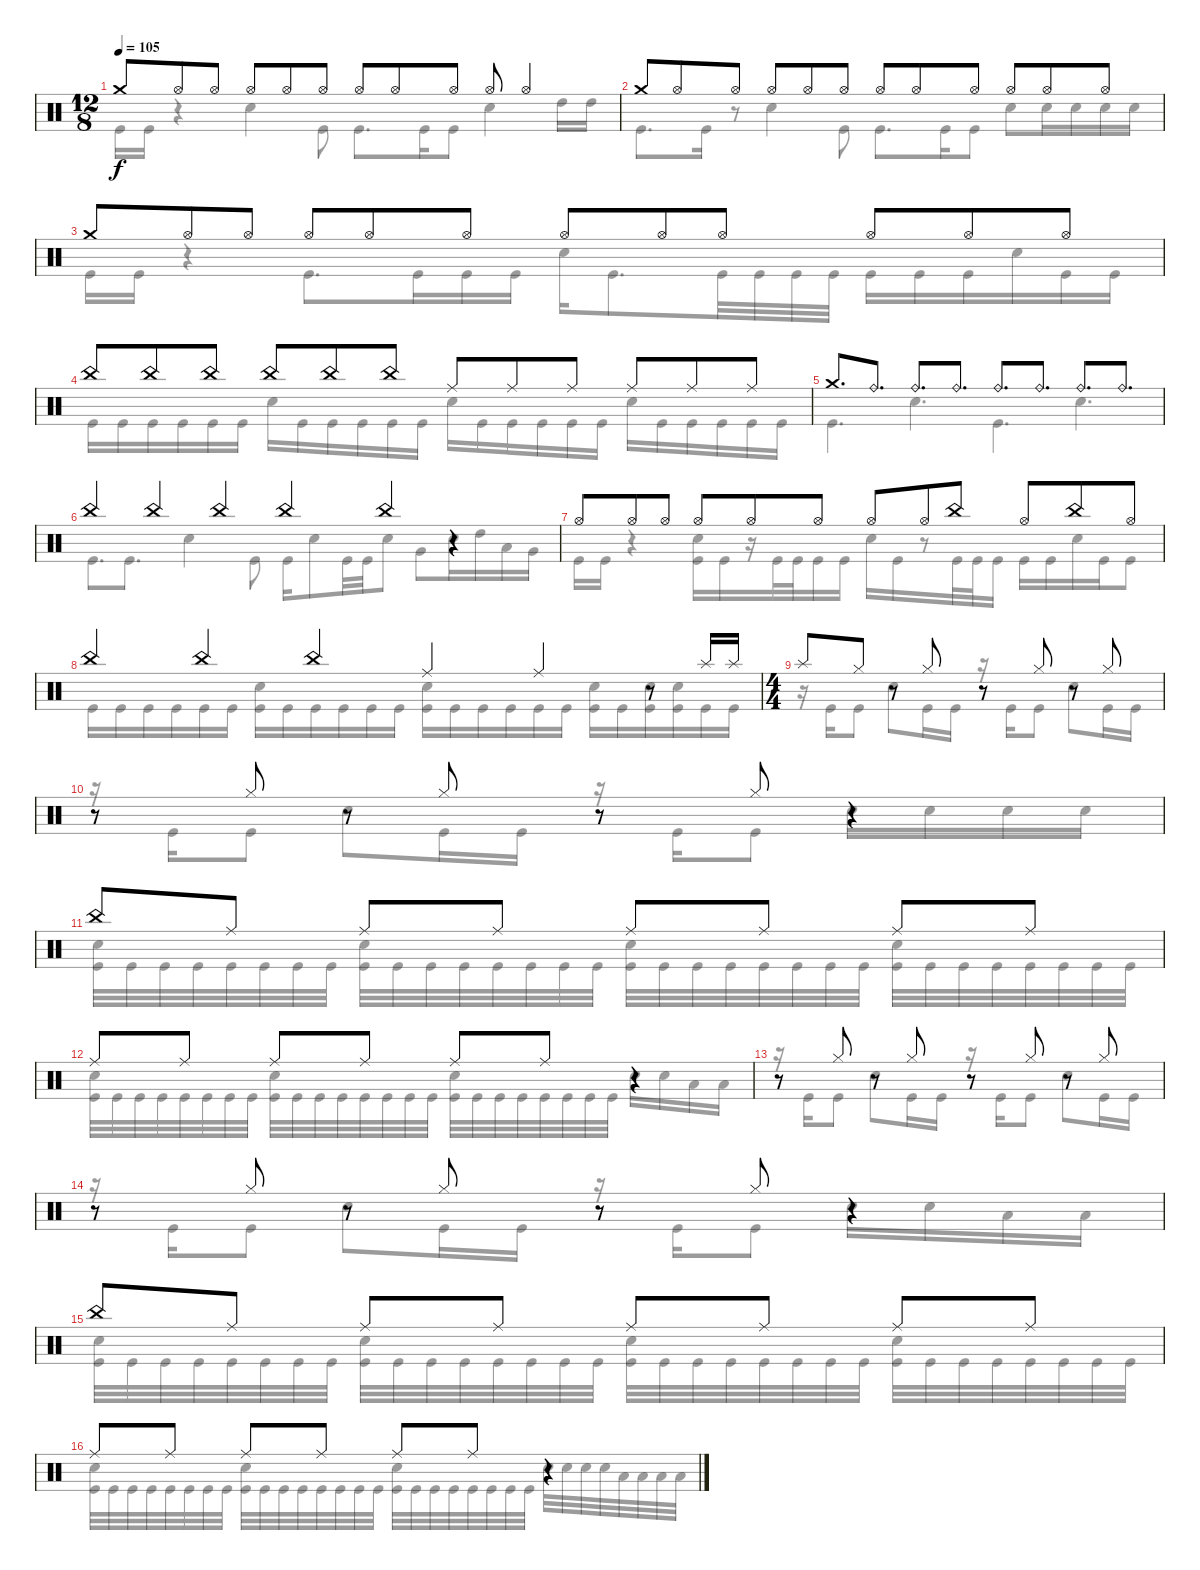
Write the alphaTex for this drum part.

\track "" {instrument percussion}
\staff {score}
\articulation defaults
\voice
\ts (12 8)
\tempo 105
\clef neutral
\ks c "Crash medium (hit)".8{dy f} "Hi-Hat (open)".8 "Hi-Hat (open)".8 "Hi-Hat (open)".8 "Hi-Hat (open)".8 "Hi-Hat (open)".8 "Hi-Hat (open)".8 "Hi-Hat (open)".8 "Hi-Hat (open)".8 "Hi-Hat (open)".8 "Hi-Hat (open)".4
|
"Crash medium (hit)".8 "Hi-Hat (open)".8 "Hi-Hat (open)".8 "Hi-Hat (open)".8 "Hi-Hat (open)".8 "Hi-Hat (open)".8 "Hi-Hat (open)".8 "Hi-Hat (open)".8 "Hi-Hat (open)".8 "Hi-Hat (open)".8 "Hi-Hat (open)".8 "Hi-Hat (open)".8 |
"Crash medium (hit)".8 "Hi-Hat (open)".8 "Hi-Hat (open)".8 "Hi-Hat (open)".8 "Hi-Hat (open)".8 "Hi-Hat (open)".8 "Hi-Hat (open)".8 "Hi-Hat (open)".8 "Hi-Hat (open)".8 "Hi-Hat (open)".8 "Hi-Hat (open)".8 "Hi-Hat (open)".8 |
"China (hit)".8 "China (hit)".8 "China (hit)".8 "China (hit)".8 "China (hit)".8 "China (hit)".8 "Ride (middle)".8 "Ride (middle)".8 "Ride (middle)".8 "Ride (middle)".8 "Ride (middle)".8 "Ride (middle)".8 |
"Crash medium (hit)".8{d} "Ride (bell)".8{d} "Ride (bell)".8{d} "Ride (bell)".8{d} "Ride (bell)".8{d} "Ride (bell)".8{d} "Ride (bell)".8{d} "Ride (bell)".8{d} |
"China (hit)".4 "China (hit)".4 "China (hit)".4 "China (hit)".4 "China (hit)".4 r.4 |
"Hi-Hat (open)".8 "Hi-Hat (open)".8 "Hi-Hat (open)".8 "Hi-Hat (open)".8 "Hi-Hat (open)".8 "Hi-Hat (open)".8 "Hi-Hat (open)".8 "Hi-Hat (open)".8 "China (hit)".8 "Hi-Hat (open)".8 "China (hit)".8 "Hi-Hat (open)".8 |
"China (hit)".4 "China (hit)".4 "China (hit)".4 "Ride (middle)".4 "Ride (middle)".4 r.8 "Splash (hit)".16 "Splash (hit)".16 |
\ts (4 4)
"Splash (hit)".8 "Hi-Hat (closed)".8 r.8 "Hi-Hat (closed)".8 r.8 "Hi-Hat (closed)".8 r.8 "Hi-Hat (closed)".8 |
r.8 "Hi-Hat (closed)".8 r.8 "Hi-Hat (closed)".8 r.8 "Hi-Hat (closed)".8 r.4 |
"China (hit)".8 "Ride (middle)".8{beam split} "Ride (middle)".8{beam merge} "Ride (middle)".8{beam split} "Ride (middle)".8 "Ride (middle)".8 "Ride (middle)".8 "Ride (middle)".8 |
"Ride (middle)".8 "Ride (middle)".8{beam split} "Ride (middle)".8{beam merge} "Ride (middle)".8{beam split} "Ride (middle)".8 "Ride (middle)".8 r.4 |
r.8 "Hi-Hat (closed)".8 r.8 "Hi-Hat (closed)".8 r.8 "Hi-Hat (closed)".8 r.8 "Hi-Hat (closed)".8 |
r.8 "Hi-Hat (closed)".8 r.8 "Hi-Hat (closed)".8 r.8 "Hi-Hat (closed)".8 r.4 |
"China (hit)".8 "Ride (middle)".8{beam split} "Ride (middle)".8{beam merge} "Ride (middle)".8{beam split} "Ride (middle)".8 "Ride (middle)".8 "Ride (middle)".8 "Ride (middle)".8 |
"Ride (middle)".8 "Ride (middle)".8{beam split} "Ride (middle)".8{beam merge} "Ride (middle)".8{beam split} "Ride (middle)".8 "Ride (middle)".8 r.4
\voice
\clef neutral
\ottava regular
\simile none
\ks c "Kick (hit)".16{dy f} "Kick (hit)".16
r.4 "Snare (hit) 2".4 "Kick (hit)".8 "Kick (hit)".8{d} "Kick (hit)".16 "Kick (hit)".8 "Snare (hit) 2".4 "High Tom (hit)".16 "High Tom (hit)".16 |
"Kick (hit)".8{d} "Kick (hit)".16 r.8 "Snare (hit) 2".4 "Kick (hit)".8 "Kick (hit)".8{d} "Kick (hit)".16 "Kick (hit)".8 "Snare (hit) 2".8 "Snare (hit) 2".16 "Snare (hit) 2".16 "Snare (hit) 2".16 "Snare (hit) 2".16 |
"Kick (hit)".16 "Kick (hit)".16 r.4 "Kick (hit)".8{d} "Kick (hit)".16 "Kick (hit)".16 "Kick (hit)".16 "Snare (hit) 2".16 "Kick (hit)".8{d} "Kick (hit)".32 "Kick (hit)".32 "Kick (hit)".32 "Kick (hit)".32 "Kick (hit)".16 "Kick (hit)".16 "Kick (hit)".16 "Snare (hit) 2".16 "Kick (hit)".16 "Kick (hit)".16 |
"Kick (hit)".16 "Kick (hit)".16 "Kick (hit)".16 "Kick (hit)".16 "Kick (hit)".16 "Kick (hit)".16 "Snare (hit) 2".16 "Kick (hit)".16 "Kick (hit)".16 "Kick (hit)".16 "Kick (hit)".16 "Kick (hit)".16 "Snare (hit) 2".16 "Kick (hit)".16 "Kick (hit)".16 "Kick (hit)".16 "Kick (hit)".16 "Kick (hit)".16 "Snare (hit) 2".16 "Kick (hit)".16 "Kick (hit)".16 "Kick (hit)".16 "Kick (hit)".16 "Kick (hit)".16 |
"Kick (hit)".4{d} "Snare (hit) 2".4{d} "Kick (hit)".4{d} "Snare (hit) 2".4{d} |
"Kick (hit)".8{d} "Kick (hit)".8{d} "Snare (hit) 2".4 "Kick (hit)".8 "Kick (hit)".16 "Snare (hit) 2".8 "Kick (hit)".32 "Kick (hit)".32 "Snare (hit) 2".8 "Very Low Tom (hit)".8 "Snare (hit) 2".16 "High Tom (hit)".16 "Low Tom (hit)".16 "Very Low Tom (hit)".16 |
"Kick (hit)".16 "Kick (hit)".16 r.4 ("Snare (hit) 2" "Kick (hit)").16 "Kick (hit)".16 r.16 "Kick (hit)".32 "Kick (hit)".32 "Kick (hit)".16 "Kick (hit)".16 "Snare (hit) 2".16 "Kick (hit)".16 r.8 "Kick (hit)".32 "Kick (hit)".32 "Kick (hit)".16 "Kick (hit)".16 "Kick (hit)".16 "Snare (hit) 2".16 "Kick (hit)".16 "Kick (hit)".8 |
"Kick (hit)".16 "Kick (hit)".16 "Kick (hit)".16 "Kick (hit)".16 "Kick (hit)".16 "Kick (hit)".16 ("Snare (hit) 2" "Kick (hit)").16 "Kick (hit)".16 "Kick (hit)".16 "Kick (hit)".16 "Kick (hit)".16 "Kick (hit)".16 ("Snare (hit) 2" "Kick (hit)").16 "Kick (hit)".16 "Kick (hit)".16 "Kick (hit)".16 "Kick (hit)".16 "Kick (hit)".16 ("Snare (hit) 2" "Kick (hit)").16 "Kick (hit)".16 ("Snare (hit) 2" "Kick (hit)").16 ("Snare (hit) 2" "Kick (hit)").16 "Kick (hit)".16 "Kick (hit)".16 |
r.16 "Kick (hit)".16 "Kick (hit)".8 "Snare (hit) 2".8 "Kick (hit)".16 "Kick (hit)".16 r.16 "Kick (hit)".16 "Kick (hit)".8 "Snare (hit) 2".8 "Kick (hit)".16 "Kick (hit)".16 |
r.16 "Kick (hit)".16 "Kick (hit)".8 "Snare (hit) 2".8 "Kick (hit)".16 "Kick (hit)".16 r.16 "Kick (hit)".16 "Kick (hit)".8 "Snare (hit) 2".16 "Snare (hit) 2".16 "Snare (hit) 2".16 "Snare (hit) 2".16 |
("Snare (hit) 2" "Kick (hit)").32 "Kick (hit)".32 "Kick (hit)".32 "Kick (hit)".32 "Kick (hit)".32 "Kick (hit)".32 "Kick (hit)".32 "Kick (hit)".32 ("Snare (hit) 2" "Kick (hit)").32 "Kick (hit)".32 "Kick (hit)".32 "Kick (hit)".32 "Kick (hit)".32 "Kick (hit)".32 "Kick (hit)".32 "Kick (hit)".32 ("Snare (hit) 2" "Kick (hit)").32 "Kick (hit)".32 "Kick (hit)".32 "Kick (hit)".32 "Kick (hit)".32 "Kick (hit)".32 "Kick (hit)".32 "Kick (hit)".32 ("Snare (hit) 2" "Kick (hit)").32 "Kick (hit)".32 "Kick (hit)".32 "Kick (hit)".32 "Kick (hit)".32 "Kick (hit)".32 "Kick (hit)".32 "Kick (hit)".32 |
("Snare (hit) 2" "Kick (hit)").32 "Kick (hit)".32 "Kick (hit)".32 "Kick (hit)".32 "Kick (hit)".32 "Kick (hit)".32 "Kick (hit)".32 "Kick (hit)".32 ("Snare (hit) 2" "Kick (hit)").32 "Kick (hit)".32 "Kick (hit)".32 "Kick (hit)".32 "Kick (hit)".32 "Kick (hit)".32 "Kick (hit)".32 "Kick (hit)".32 ("Snare (hit) 2" "Kick (hit)").32 "Kick (hit)".32 "Kick (hit)".32 "Kick (hit)".32 "Kick (hit)".32 "Kick (hit)".32 "Kick (hit)".32 "Kick (hit)".32 "Snare (hit) 2".16 "Snare (hit) 2".16 "Low Tom (hit)".16 "Low Tom (hit)".16 |
r.16 "Kick (hit)".16 "Kick (hit)".8 "Snare (hit) 2".8 "Kick (hit)".16 "Kick (hit)".16 r.16 "Kick (hit)".16 "Kick (hit)".8 "Snare (hit) 2".8 "Kick (hit)".16 "Kick (hit)".16 |
r.16 "Kick (hit)".16 "Kick (hit)".8 "Snare (hit) 2".8 "Kick (hit)".16 "Kick (hit)".16 r.16 "Kick (hit)".16 "Kick (hit)".8 "Snare (hit) 2".16 "Snare (hit) 2".16 "Low Tom (hit)".16 "Low Tom (hit)".16 |
("Snare (hit) 2" "Kick (hit)").32 "Kick (hit)".32 "Kick (hit)".32 "Kick (hit)".32 "Kick (hit)".32 "Kick (hit)".32 "Kick (hit)".32 "Kick (hit)".32 ("Snare (hit) 2" "Kick (hit)").32 "Kick (hit)".32 "Kick (hit)".32 "Kick (hit)".32 "Kick (hit)".32 "Kick (hit)".32 "Kick (hit)".32 "Kick (hit)".32 ("Snare (hit) 2" "Kick (hit)").32 "Kick (hit)".32 "Kick (hit)".32 "Kick (hit)".32 "Kick (hit)".32 "Kick (hit)".32 "Kick (hit)".32 "Kick (hit)".32 ("Snare (hit) 2" "Kick (hit)").32 "Kick (hit)".32 "Kick (hit)".32 "Kick (hit)".32 "Kick (hit)".32 "Kick (hit)".32 "Kick (hit)".32 "Kick (hit)".32 |
("Snare (hit) 2" "Kick (hit)").32 "Kick (hit)".32 "Kick (hit)".32 "Kick (hit)".32 "Kick (hit)".32 "Kick (hit)".32 "Kick (hit)".32 "Kick (hit)".32 ("Snare (hit) 2" "Kick (hit)").32 "Kick (hit)".32 "Kick (hit)".32 "Kick (hit)".32 "Kick (hit)".32 "Kick (hit)".32 "Kick (hit)".32 "Kick (hit)".32 ("Snare (hit) 2" "Kick (hit)").32 "Kick (hit)".32 "Kick (hit)".32 "Kick (hit)".32 "Kick (hit)".32 "Kick (hit)".32 "Kick (hit)".32 "Kick (hit)".32 "Snare (hit) 2".32 "Snare (hit) 2".32 "Snare (hit) 2".32 "Snare (hit)".32 "Low Tom (hit)".32 "Low Tom (hit)".32 "Low Tom (hit)".32 "Low Tom (hit)".32
